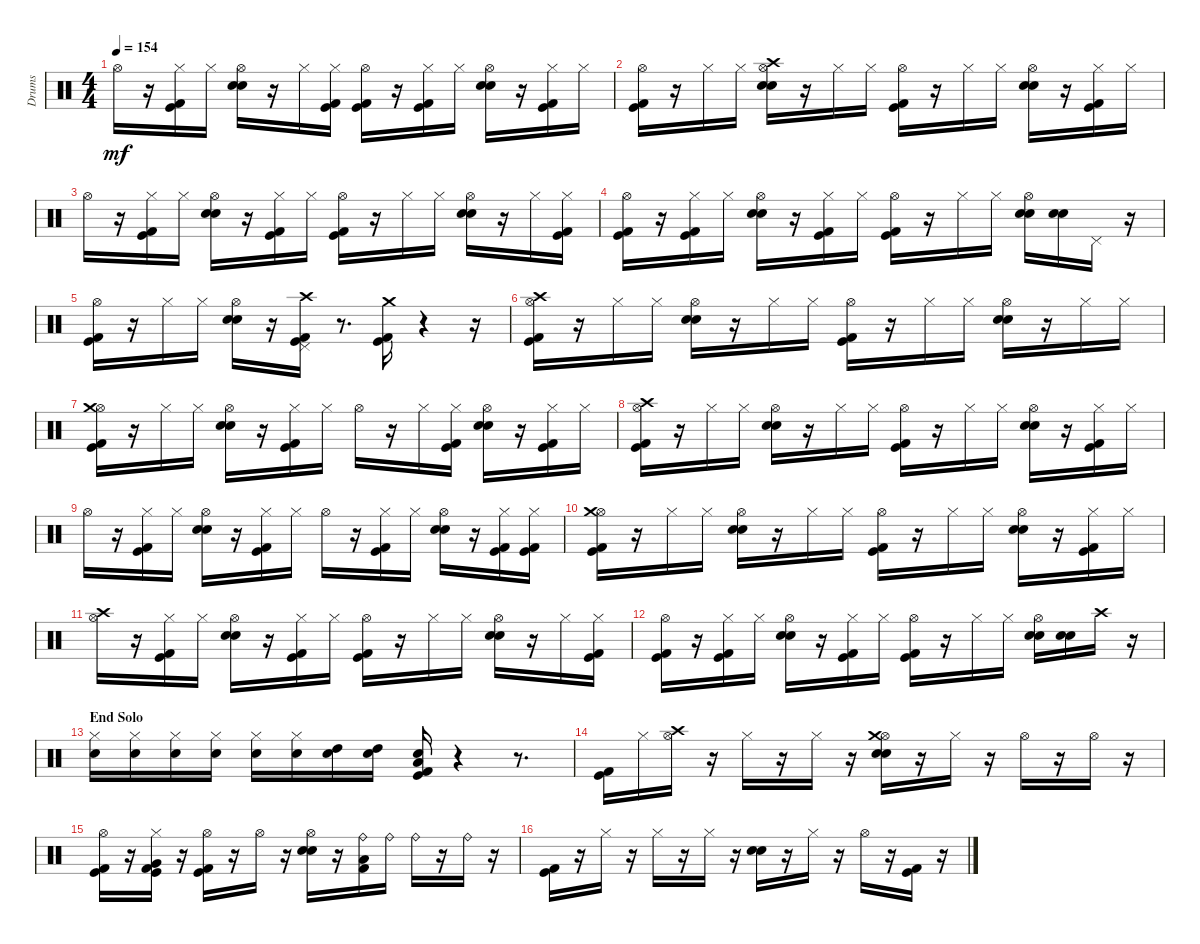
\track ("Drums" "Drums") {instrument percussion}
\staff {score}
\articulation defaults
\ts (4 4)
\tempo 154
\clef neutral
\ks c "Hi-Hat (open)".16{dy mf}
r.16 ("Kick (hit)" "Kick (hit) 2" "Hi-Hat (closed)").16 "Hi-Hat (closed)".16 ("Snare (hit) 2" "Electric Snare (hit)" "Hi-Hat (open)").16 r.16 "Hi-Hat (closed)".16 ("Kick (hit)" "Kick (hit) 2" "Hi-Hat (closed)").16 ("Kick (hit)" "Kick (hit) 2" "Hi-Hat (open)").16 r.16 ("Kick (hit)" "Kick (hit) 2" "Hi-Hat (closed)").16 "Hi-Hat (closed)".16 ("Snare (hit) 2" "Electric Snare (hit)" "Hi-Hat (open)").16 r.16 ("Kick (hit)" "Kick (hit) 2" "Hi-Hat (closed)").16 "Hi-Hat (closed)".16 |
("Kick (hit)" "Kick (hit) 2" "Hi-Hat (open)").16 r.16 "Hi-Hat (closed)".16 "Hi-Hat (closed)".16 ("Snare (hit) 2" "Electric Snare (hit)" "Hi-Hat (open)" "Crash high (hit)").16 r.16 "Hi-Hat (closed)".16 "Hi-Hat (closed)".16 ("Kick (hit)" "Kick (hit) 2" "Hi-Hat (open)").16 r.16 "Hi-Hat (closed)".16 "Hi-Hat (closed)".16 ("Snare (hit) 2" "Electric Snare (hit)" "Hi-Hat (open)").16 r.16 ("Kick (hit)" "Kick (hit) 2" "Hi-Hat (closed)").16 "Hi-Hat (closed)".16 |
"Hi-Hat (open)".16 r.16 ("Kick (hit)" "Kick (hit) 2" "Hi-Hat (closed)").16 "Hi-Hat (closed)".16 ("Snare (hit) 2" "Electric Snare (hit)" "Hi-Hat (open)").16 r.16 ("Kick (hit)" "Kick (hit) 2" "Hi-Hat (closed)").16 "Hi-Hat (closed)".16 ("Kick (hit)" "Kick (hit) 2" "Hi-Hat (open)").16 r.16 "Hi-Hat (closed)".16 "Hi-Hat (closed)".16 ("Snare (hit) 2" "Electric Snare (hit)" "Hi-Hat (open)").16 r.16 "Hi-Hat (closed)".16 ("Kick (hit)" "Kick (hit) 2" "Hi-Hat (closed)").16 |
("Kick (hit)" "Kick (hit) 2" "Hi-Hat (open)").16 r.16 ("Kick (hit)" "Kick (hit) 2" "Hi-Hat (closed)").16 "Hi-Hat (closed)".16 ("Snare (hit) 2" "Electric Snare (hit)" "Hi-Hat (open)").16 r.16 ("Kick (hit)" "Kick (hit) 2" "Hi-Hat (closed)").16 "Hi-Hat (closed)".16 ("Kick (hit)" "Kick (hit) 2" "Hi-Hat (open)").16 r.16 "Hi-Hat (closed)".16 "Hi-Hat (closed)".16 ("Snare (hit) 2" "Electric Snare (hit)" "Hi-Hat (open)").16 ("Snare (hit) 2" "Electric Snare (hit)").16 "Pedal Hi-Hat (hit)".16 r.16 |
("Kick (hit)" "Kick (hit) 2" "Hi-Hat (open)").16 r.16 "Hi-Hat (closed)".16 "Hi-Hat (closed)".16 ("Snare (hit) 2" "Electric Snare (hit)" "Hi-Hat (open)").16 r.16 ("Kick (hit)" "Kick (hit) 2" "Pedal Hi-Hat (hit)" "Crash high (hit)").16 r.8{d} ("Kick (hit)" "Kick (hit) 2" "Crash medium (hit)").16 r.4 r.16 |
("Kick (hit)" "Kick (hit) 2" "Hi-Hat (open)" "Crash high (hit)").16 r.16 "Hi-Hat (closed)".16 "Hi-Hat (closed)".16 ("Snare (hit) 2" "Electric Snare (hit)" "Hi-Hat (open)").16 r.16 "Hi-Hat (closed)".16 "Hi-Hat (closed)".16 ("Kick (hit)" "Kick (hit) 2" "Hi-Hat (open)").16 r.16 "Hi-Hat (closed)".16 "Hi-Hat (closed)".16 ("Snare (hit) 2" "Electric Snare (hit)" "Hi-Hat (open)").16 r.16 "Hi-Hat (closed)".16 "Hi-Hat (closed)".16 |
("Kick (hit)" "Kick (hit) 2" "Hi-Hat (open)" "Crash medium (hit)").16 r.16 "Hi-Hat (closed)".16 "Hi-Hat (closed)".16 ("Snare (hit) 2" "Electric Snare (hit)" "Hi-Hat (open)").16 r.16 ("Kick (hit)" "Kick (hit) 2" "Hi-Hat (closed)").16 "Hi-Hat (closed)".16 "Hi-Hat (open)".16 r.16 "Hi-Hat (closed)".16 ("Kick (hit)" "Kick (hit) 2" "Hi-Hat (closed)").16 ("Snare (hit) 2" "Electric Snare (hit)" "Hi-Hat (open)").16 r.16 ("Kick (hit)" "Kick (hit) 2" "Hi-Hat (closed)").16 "Hi-Hat (closed)".16 |
("Kick (hit)" "Kick (hit) 2" "Hi-Hat (open)" "Crash high (hit)").16 r.16 "Hi-Hat (closed)".16 "Hi-Hat (closed)".16 ("Snare (hit) 2" "Electric Snare (hit)" "Hi-Hat (open)").16 r.16 "Hi-Hat (closed)".16 "Hi-Hat (closed)".16 ("Kick (hit)" "Kick (hit) 2" "Hi-Hat (open)").16 r.16 "Hi-Hat (closed)".16 "Hi-Hat (closed)".16 ("Snare (hit) 2" "Electric Snare (hit)" "Hi-Hat (open)").16 r.16 ("Kick (hit)" "Kick (hit) 2" "Hi-Hat (closed)").16 "Hi-Hat (closed)".16 |
"Hi-Hat (open)".16 r.16 ("Kick (hit)" "Kick (hit) 2" "Hi-Hat (closed)").16 "Hi-Hat (closed)".16 ("Snare (hit) 2" "Electric Snare (hit)" "Hi-Hat (open)").16 r.16 ("Kick (hit)" "Kick (hit) 2" "Hi-Hat (closed)").16 "Hi-Hat (closed)".16 "Hi-Hat (open)".16 r.16 ("Kick (hit)" "Kick (hit) 2" "Hi-Hat (closed)").16 "Hi-Hat (closed)".16 ("Snare (hit) 2" "Electric Snare (hit)" "Hi-Hat (open)").16 r.16 ("Kick (hit)" "Kick (hit) 2" "Hi-Hat (closed)").16 ("Kick (hit)" "Kick (hit) 2" "Hi-Hat (closed)").16 |
("Kick (hit)" "Kick (hit) 2" "Hi-Hat (open)" "Crash medium (hit)").16 r.16 "Hi-Hat (closed)".16 "Hi-Hat (closed)".16 ("Snare (hit) 2" "Electric Snare (hit)" "Hi-Hat (open)").16 r.16 "Hi-Hat (closed)".16 "Hi-Hat (closed)".16 ("Kick (hit)" "Kick (hit) 2" "Hi-Hat (open)").16 r.16 "Hi-Hat (closed)".16 "Hi-Hat (closed)".16 ("Snare (hit) 2" "Electric Snare (hit)" "Hi-Hat (open)").16 r.16 ("Kick (hit)" "Kick (hit) 2" "Hi-Hat (closed)").16 "Hi-Hat (closed)".16 |
("Hi-Hat (open)" "Crash high (hit)").16 r.16 ("Kick (hit)" "Kick (hit) 2" "Hi-Hat (closed)").16 "Hi-Hat (closed)".16 ("Snare (hit) 2" "Electric Snare (hit)" "Hi-Hat (open)").16 r.16 ("Kick (hit)" "Kick (hit) 2" "Hi-Hat (closed)").16 "Hi-Hat (closed)".16 ("Kick (hit)" "Kick (hit) 2" "Hi-Hat (open)").16 r.16 "Hi-Hat (closed)".16 "Hi-Hat (closed)".16 ("Snare (hit) 2" "Electric Snare (hit)" "Hi-Hat (open)").16 r.16 "Hi-Hat (closed)".16 ("Kick (hit)" "Kick (hit) 2" "Hi-Hat (closed)").16 |
("Kick (hit)" "Kick (hit) 2" "Hi-Hat (open)").16 r.16 ("Kick (hit)" "Kick (hit) 2" "Hi-Hat (closed)").16 "Hi-Hat (closed)".16 ("Snare (hit) 2" "Electric Snare (hit)" "Hi-Hat (open)").16 r.16 ("Kick (hit)" "Kick (hit) 2" "Hi-Hat (closed)").16 "Hi-Hat (closed)".16 ("Kick (hit)" "Kick (hit) 2" "Hi-Hat (open)").16 r.16 "Hi-Hat (closed)".16 "Hi-Hat (closed)".16 ("Snare (hit) 2" "Electric Snare (hit)" "Hi-Hat (open)").16 ("Snare (hit) 2" "Electric Snare (hit)").16 "Crash high (hit)".16 r.16 |
\section ("" "End Solo")
("Electric Snare (hit)" "Hi-Hat (closed)").16 ("Electric Snare (hit)" "Hi-Hat (closed)").16 ("Electric Snare (hit)" "Hi-Hat (closed)").16 ("Electric Snare (hit)" "Hi-Hat (closed)").16 ("Electric Snare (hit)" "Hi-Hat (closed)").16 ("Electric Snare (hit)" "Hi-Hat (closed)").16 ("Snare (hit) 2" "High Tom (hit)").16 ("Snare (hit) 2" "High Tom (hit)").16 ("Kick (hit)" "Kick (hit) 2" "Snare (hit) 2" "Low Tom (hit)").16 r.4 r.8{d} |
("Kick (hit)" "Kick (hit) 2").16 "Hi-Hat (closed)".16 ("Hi-Hat (open)" "Crash high (hit)").16 r.16 "Hi-Hat (closed)".16 r.16 "Hi-Hat (closed)".16 r.16 ("Snare (hit) 2" "Electric Snare (hit)" "Hi-Hat (open)" "Crash medium (hit)").16 r.16 "Hi-Hat (closed)".16 r.16 "Hi-Hat (open)".16 r.16 "Hi-Hat (open)".16 r.16 |
("Kick (hit)" "Kick (hit) 2" "Hi-Hat (open)").16 r.16 ("Kick (hit)" "Kick (hit) 2" "Hi-Hat (closed)" "Very Low Tom (hit)").16 r.16 ("Kick (hit)" "Kick (hit) 2" "Hi-Hat (open)").16 r.16 "Hi-Hat (open)".16 r.16 ("Snare (hit) 2" "Electric Snare (hit)" "Hi-Hat (open)").16 r.16 ("Kick (hit) 2" "Low Floor Tom (hit)" "Ride (bell)").16 "Ride (bell)".16 "Ride (bell)".16 r.16 "Ride (bell)".16 r.16 |
("Kick (hit)" "Kick (hit) 2").16 r.16 "Hi-Hat (closed)".16 r.16 "Hi-Hat (closed)".16 r.16 "Hi-Hat (closed)".16 r.16 ("Snare (hit) 2" "Electric Snare (hit)").16 r.16 "Hi-Hat (closed)".16 r.16 "Hi-Hat (open)".16 r.16 ("Kick (hit)" "Kick (hit) 2").16 r.16
